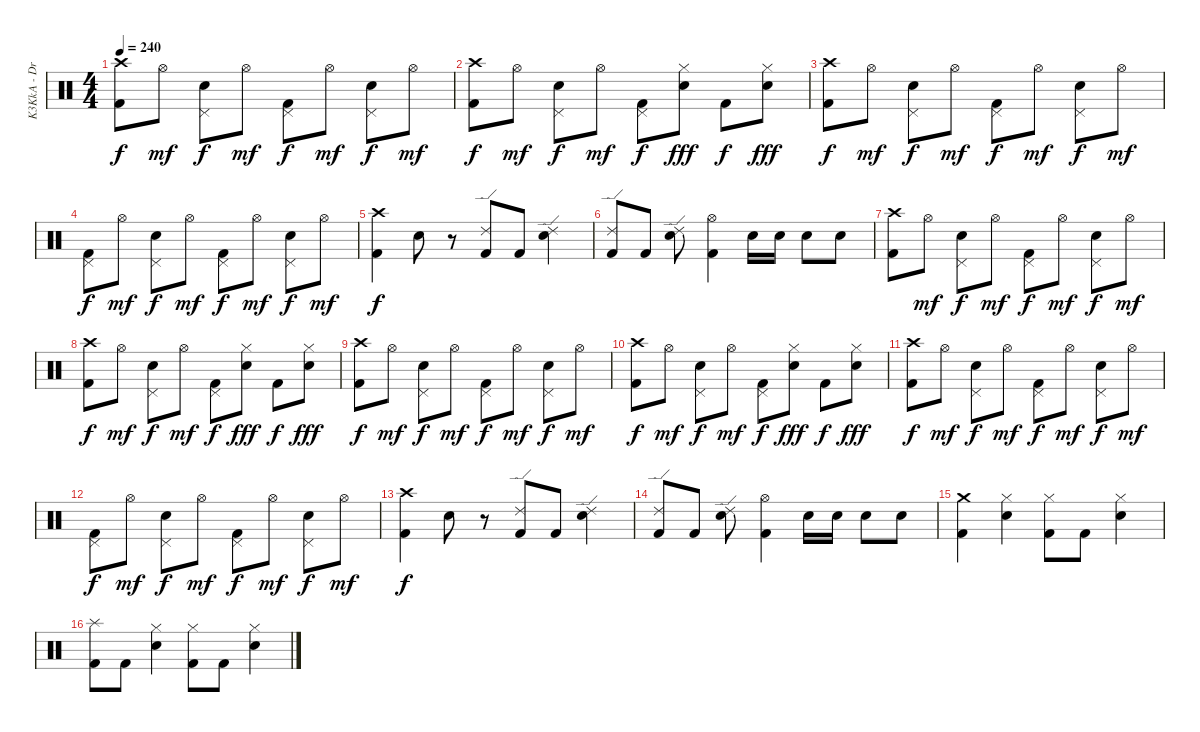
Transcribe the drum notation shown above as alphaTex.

\track ("K3KkA - Drums" "K3KkA - Dr") {instrument percussion}
\staff {score}
\articulation defaults
\ts (4 4)
\tempo 240
\clef neutral
\ks c
("Crash high (hit)" "Kick (hit) 2").8{dy f} "Hi-Hat (open)".8{dy mf} ("Pedal Hi-Hat (hit)" "Snare (hit) 2").8{dy f} "Hi-Hat (open)".8{dy mf} ("Pedal Hi-Hat (hit)" "Kick (hit) 2").8{dy f} "Hi-Hat (open)".8{dy mf} ("Pedal Hi-Hat (hit)" "Snare (hit) 2").8{dy f} "Hi-Hat (open)".8{dy mf} |
("Crash high (hit)" "Kick (hit) 2").8{dy f} "Hi-Hat (open)".8{dy mf} ("Pedal Hi-Hat (hit)" "Snare (hit) 2").8{dy f} "Hi-Hat (open)".8{dy mf} ("Pedal Hi-Hat (hit)" "Kick (hit) 2").8{dy f} ("Hi-Hat (closed)" "Snare (hit) 2").8{dy fff} "Kick (hit) 2".8{dy f} ("Hi-Hat (closed)" "Snare (hit) 2").8{dy fff} |
("Crash high (hit)" "Kick (hit) 2").8{dy f} "Hi-Hat (open)".8{dy mf} ("Pedal Hi-Hat (hit)" "Snare (hit) 2").8{dy f} "Hi-Hat (open)".8{dy mf} ("Pedal Hi-Hat (hit)" "Kick (hit) 2").8{dy f} "Hi-Hat (open)".8{dy mf} ("Pedal Hi-Hat (hit)" "Snare (hit) 2").8{dy f} "Hi-Hat (open)".8{dy mf} |
("Pedal Hi-Hat (hit)" "Kick (hit) 2").8{dy f} "Hi-Hat (open)".8{dy mf} ("Pedal Hi-Hat (hit)" "Snare (hit) 2").8{dy f} "Hi-Hat (open)".8{dy mf} ("Pedal Hi-Hat (hit)" "Kick (hit) 2").8{dy f} "Hi-Hat (open)".8{dy mf} ("Pedal Hi-Hat (hit)" "Snare (hit) 2").8{dy f} "Hi-Hat (open)".8{dy mf} |
("Crash high (hit)" "Kick (hit) 2").4{dy f volume 13} "Electric Snare (hit)".8 r.8 ("Ride (edge) 2" "Kick (hit) 2").8 "Kick (hit) 2".8 ("Ride (edge) 2" "Electric Snare (hit)").4 |
("Ride (edge) 2" "Kick (hit) 2").8 "Kick (hit) 2".8 ("Ride (edge) 2" "Electric Snare (hit)").8 ("Hi-Hat (open)" "Kick (hit) 2").4 "Snare (hit) 2".16 "Snare (hit) 2".16 "Snare (hit) 2".8 "Snare (hit) 2".8 |
("Crash high (hit)" "Kick (hit) 2").8 "Hi-Hat (open)".8{dy mf} ("Pedal Hi-Hat (hit)" "Snare (hit) 2").8{dy f} "Hi-Hat (open)".8{dy mf} ("Pedal Hi-Hat (hit)" "Kick (hit) 2").8{dy f} "Hi-Hat (open)".8{dy mf} ("Pedal Hi-Hat (hit)" "Snare (hit) 2").8{dy f} "Hi-Hat (open)".8{dy mf} |
("Crash high (hit)" "Kick (hit) 2").8{dy f} "Hi-Hat (open)".8{dy mf} ("Pedal Hi-Hat (hit)" "Snare (hit) 2").8{dy f} "Hi-Hat (open)".8{dy mf} ("Pedal Hi-Hat (hit)" "Kick (hit) 2").8{dy f} ("Hi-Hat (closed)" "Snare (hit) 2").8{dy fff} "Kick (hit) 2".8{dy f} ("Hi-Hat (closed)" "Snare (hit) 2").8{dy fff} |
("Crash high (hit)" "Kick (hit) 2").8{dy f} "Hi-Hat (open)".8{dy mf} ("Pedal Hi-Hat (hit)" "Snare (hit) 2").8{dy f} "Hi-Hat (open)".8{dy mf} ("Pedal Hi-Hat (hit)" "Kick (hit) 2").8{dy f} "Hi-Hat (open)".8{dy mf} ("Pedal Hi-Hat (hit)" "Snare (hit) 2").8{dy f} "Hi-Hat (open)".8{dy mf} |
("Crash high (hit)" "Kick (hit) 2").8{dy f} "Hi-Hat (open)".8{dy mf} ("Pedal Hi-Hat (hit)" "Snare (hit) 2").8{dy f} "Hi-Hat (open)".8{dy mf} ("Pedal Hi-Hat (hit)" "Kick (hit) 2").8{dy f} ("Hi-Hat (closed)" "Snare (hit) 2").8{dy fff} "Kick (hit) 2".8{dy f} ("Hi-Hat (closed)" "Snare (hit) 2").8{dy fff} |
("Crash high (hit)" "Kick (hit) 2").8{dy f} "Hi-Hat (open)".8{dy mf} ("Pedal Hi-Hat (hit)" "Snare (hit) 2").8{dy f} "Hi-Hat (open)".8{dy mf} ("Pedal Hi-Hat (hit)" "Kick (hit) 2").8{dy f} "Hi-Hat (open)".8{dy mf} ("Pedal Hi-Hat (hit)" "Snare (hit) 2").8{dy f} "Hi-Hat (open)".8{dy mf} |
("Pedal Hi-Hat (hit)" "Kick (hit) 2").8{dy f} "Hi-Hat (open)".8{dy mf} ("Pedal Hi-Hat (hit)" "Snare (hit) 2").8{dy f} "Hi-Hat (open)".8{dy mf} ("Pedal Hi-Hat (hit)" "Kick (hit) 2").8{dy f} "Hi-Hat (open)".8{dy mf} ("Pedal Hi-Hat (hit)" "Snare (hit) 2").8{dy f} "Hi-Hat (open)".8{dy mf} |
("Crash high (hit)" "Kick (hit) 2").4{dy f volume 13} "Electric Snare (hit)".8 r.8 ("Ride (edge) 2" "Kick (hit) 2").8 "Kick (hit) 2".8 ("Ride (edge) 2" "Electric Snare (hit)").4 |
("Ride (edge) 2" "Kick (hit) 2").8 "Kick (hit) 2".8 ("Ride (edge) 2" "Electric Snare (hit)").8 ("Hi-Hat (open)" "Kick (hit) 2").4 "Snare (hit) 2".16 "Snare (hit) 2".16 "Snare (hit) 2".8 "Snare (hit) 2".8 |
("Crash medium (hit)" "Kick (hit) 2").4 ("Hi-Hat (closed)" "Electric Snare (hit)").4 ("Hi-Hat (closed)" "Kick (hit) 2").8 "Kick (hit) 2".8 ("Hi-Hat (closed)" "Electric Snare (hit)").4 |
("Splash (hit)" "Kick (hit) 2").8 "Kick (hit) 2".8 ("Hi-Hat (closed)" "Electric Snare (hit)").4 ("Hi-Hat (closed)" "Kick (hit) 2").8 "Kick (hit) 2".8 ("Hi-Hat (closed)" "Electric Snare (hit)").4
